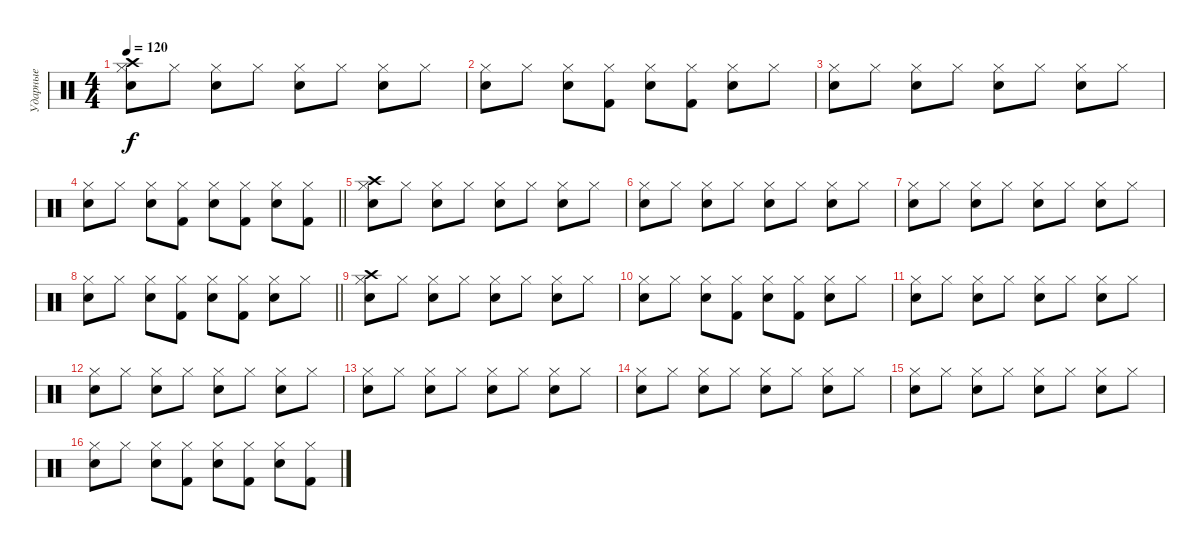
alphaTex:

\track ("Ударные" "Ударные") {instrument percussion}
\staff {score}
\articulation defaults
\ts (4 4)
\tempo 120
\clef neutral
\ks c
("Hi-Hat (closed)" "Crash high (hit)" "Snare (hit) 2").8{dy f} "Hi-Hat (closed)".8 ("Hi-Hat (closed)" "Snare (hit) 2").8 "Hi-Hat (closed)".8 ("Hi-Hat (closed)" "Snare (hit) 2").8 "Hi-Hat (closed)".8 ("Hi-Hat (closed)" "Snare (hit) 2").8 "Hi-Hat (closed)".8 |
("Hi-Hat (closed)" "Snare (hit) 2").8 "Hi-Hat (closed)".8 ("Hi-Hat (closed)" "Snare (hit) 2").8 ("Hi-Hat (closed)" "Kick (hit) 2").8 ("Hi-Hat (closed)" "Snare (hit) 2").8 ("Hi-Hat (closed)" "Kick (hit) 2").8 ("Hi-Hat (closed)" "Snare (hit) 2").8 "Hi-Hat (closed)".8 |
("Hi-Hat (closed)" "Snare (hit) 2").8 "Hi-Hat (closed)".8 ("Hi-Hat (closed)" "Snare (hit) 2").8 "Hi-Hat (closed)".8 ("Hi-Hat (closed)" "Snare (hit) 2").8 "Hi-Hat (closed)".8 ("Hi-Hat (closed)" "Snare (hit) 2").8 "Hi-Hat (closed)".8 |
\barLineRight lightlight
("Hi-Hat (closed)" "Snare (hit) 2").8 "Hi-Hat (closed)".8 ("Hi-Hat (closed)" "Snare (hit) 2").8 ("Hi-Hat (closed)" "Kick (hit) 2").8 ("Hi-Hat (closed)" "Snare (hit) 2").8 ("Hi-Hat (closed)" "Kick (hit) 2").8 ("Hi-Hat (closed)" "Snare (hit) 2").8 ("Hi-Hat (closed)" "Kick (hit) 2").8 |
("Hi-Hat (closed)" "Crash high (hit)" "Snare (hit) 2").8 "Hi-Hat (closed)".8 ("Hi-Hat (closed)" "Snare (hit) 2").8 "Hi-Hat (closed)".8 ("Hi-Hat (closed)" "Snare (hit) 2").8 "Hi-Hat (closed)".8 ("Hi-Hat (closed)" "Snare (hit) 2").8 "Hi-Hat (closed)".8 |
("Hi-Hat (closed)" "Snare (hit) 2").8 "Hi-Hat (closed)".8 ("Hi-Hat (closed)" "Snare (hit) 2").8 "Hi-Hat (closed)".8 ("Hi-Hat (closed)" "Snare (hit) 2").8 "Hi-Hat (closed)".8 ("Hi-Hat (closed)" "Snare (hit) 2").8 "Hi-Hat (closed)".8 |
("Hi-Hat (closed)" "Snare (hit) 2").8 "Hi-Hat (closed)".8 ("Hi-Hat (closed)" "Snare (hit) 2").8 "Hi-Hat (closed)".8 ("Hi-Hat (closed)" "Snare (hit) 2").8 "Hi-Hat (closed)".8 ("Hi-Hat (closed)" "Snare (hit) 2").8 "Hi-Hat (closed)".8 |
\barLineRight lightlight
("Hi-Hat (closed)" "Snare (hit) 2").8 "Hi-Hat (closed)".8 ("Hi-Hat (closed)" "Snare (hit) 2").8 ("Hi-Hat (closed)" "Kick (hit) 2").8 ("Hi-Hat (closed)" "Snare (hit) 2").8 ("Hi-Hat (closed)" "Kick (hit) 2").8 ("Hi-Hat (closed)" "Snare (hit) 2").8 "Hi-Hat (closed)".8 |
("Hi-Hat (closed)" "Crash high (hit)" "Snare (hit) 2").8 "Hi-Hat (closed)".8 ("Hi-Hat (closed)" "Snare (hit) 2").8 "Hi-Hat (closed)".8 ("Hi-Hat (closed)" "Snare (hit) 2").8 "Hi-Hat (closed)".8 ("Hi-Hat (closed)" "Snare (hit) 2").8 "Hi-Hat (closed)".8 |
("Hi-Hat (closed)" "Snare (hit) 2").8 "Hi-Hat (closed)".8 ("Hi-Hat (closed)" "Snare (hit) 2").8 ("Hi-Hat (closed)" "Kick (hit) 2").8 ("Hi-Hat (closed)" "Snare (hit) 2").8 ("Hi-Hat (closed)" "Kick (hit) 2").8 ("Hi-Hat (closed)" "Snare (hit) 2").8 "Hi-Hat (closed)".8 |
("Hi-Hat (closed)" "Snare (hit) 2").8 "Hi-Hat (closed)".8 ("Hi-Hat (closed)" "Snare (hit) 2").8 "Hi-Hat (closed)".8 ("Hi-Hat (closed)" "Snare (hit) 2").8 "Hi-Hat (closed)".8 ("Hi-Hat (closed)" "Snare (hit) 2").8 "Hi-Hat (closed)".8 |
("Hi-Hat (closed)" "Snare (hit) 2").8 "Hi-Hat (closed)".8 ("Hi-Hat (closed)" "Snare (hit) 2").8 "Hi-Hat (closed)".8 ("Hi-Hat (closed)" "Snare (hit) 2").8 "Hi-Hat (closed)".8 ("Hi-Hat (closed)" "Snare (hit) 2").8 "Hi-Hat (closed)".8 |
("Hi-Hat (closed)" "Snare (hit) 2").8 "Hi-Hat (closed)".8 ("Hi-Hat (closed)" "Snare (hit) 2").8 "Hi-Hat (closed)".8 ("Hi-Hat (closed)" "Snare (hit) 2").8 "Hi-Hat (closed)".8 ("Hi-Hat (closed)" "Snare (hit) 2").8 "Hi-Hat (closed)".8 |
("Hi-Hat (closed)" "Snare (hit) 2").8 "Hi-Hat (closed)".8 ("Hi-Hat (closed)" "Snare (hit) 2").8 "Hi-Hat (closed)".8 ("Hi-Hat (closed)" "Snare (hit) 2").8 "Hi-Hat (closed)".8 ("Hi-Hat (closed)" "Snare (hit) 2").8 "Hi-Hat (closed)".8 |
("Hi-Hat (closed)" "Snare (hit) 2").8 "Hi-Hat (closed)".8 ("Hi-Hat (closed)" "Snare (hit) 2").8 "Hi-Hat (closed)".8 ("Hi-Hat (closed)" "Snare (hit) 2").8 "Hi-Hat (closed)".8 ("Hi-Hat (closed)" "Snare (hit) 2").8 "Hi-Hat (closed)".8 |
("Hi-Hat (closed)" "Snare (hit) 2").8 "Hi-Hat (closed)".8 ("Hi-Hat (closed)" "Snare (hit) 2").8 ("Hi-Hat (closed)" "Kick (hit) 2").8 ("Hi-Hat (closed)" "Snare (hit) 2").8 ("Hi-Hat (closed)" "Kick (hit) 2").8 ("Hi-Hat (closed)" "Snare (hit) 2").8 ("Hi-Hat (closed)" "Kick (hit) 2").8
